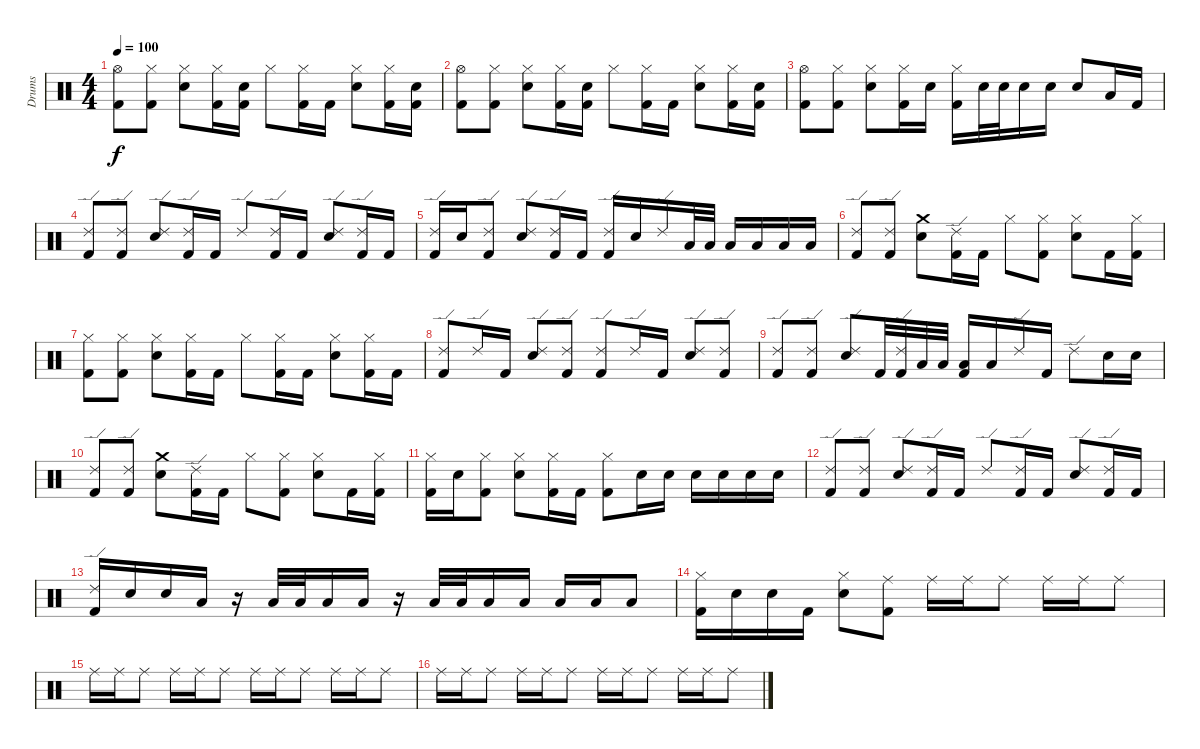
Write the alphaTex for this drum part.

\track ("Drums" "Drums") {instrument percussion}
\staff {score}
\articulation defaults
\ts (4 4)
\tempo 100
\clef neutral
\ks c
("Hi-Hat (open)" "Kick (hit) 2").8{dy f} ("Hi-Hat (closed)" "Kick (hit) 2").8 ("Hi-Hat (closed)" "Electric Snare (hit)").8 ("Hi-Hat (closed)" "Kick (hit) 2").16 ("Electric Snare (hit)" "Kick (hit) 2").16 "Hi-Hat (closed)".8 ("Hi-Hat (closed)" "Kick (hit) 2").16 "Kick (hit) 2".16 ("Hi-Hat (closed)" "Electric Snare (hit)").8 ("Hi-Hat (closed)" "Kick (hit) 2").16 ("Electric Snare (hit)" "Kick (hit) 2").16 |
("Hi-Hat (open)" "Kick (hit) 2").8 ("Hi-Hat (closed)" "Kick (hit) 2").8 ("Hi-Hat (closed)" "Electric Snare (hit)").8 ("Hi-Hat (closed)" "Kick (hit) 2").16 ("Electric Snare (hit)" "Kick (hit) 2").16 "Hi-Hat (closed)".8 ("Hi-Hat (closed)" "Kick (hit) 2").16 "Kick (hit) 2".16 ("Hi-Hat (closed)" "Electric Snare (hit)").8 ("Hi-Hat (closed)" "Kick (hit) 2").16 ("Electric Snare (hit)" "Kick (hit) 2").16 |
("Hi-Hat (open)" "Kick (hit) 2").8 ("Hi-Hat (closed)" "Kick (hit) 2").8 ("Hi-Hat (closed)" "Electric Snare (hit)").8 ("Hi-Hat (closed)" "Kick (hit) 2").16 "Electric Snare (hit)".16 ("Hi-Hat (closed)" "Kick (hit) 2").16 "Electric Snare (hit)".32 "Electric Snare (hit)".32 "Electric Snare (hit)".16 "Electric Snare (hit)".16 "Electric Snare (hit)".8 "Low Tom (hit)".16 "Kick (hit) 2".16 |
("Ride (edge) 2" "Kick (hit) 2").8 ("Ride (edge) 2" "Kick (hit) 2").8 ("Ride (edge) 2" "Electric Snare (hit)").8 ("Ride (edge) 2" "Kick (hit) 2").16 "Kick (hit) 2".16 "Ride (edge) 2".8 ("Ride (edge) 2" "Kick (hit) 2").16 "Kick (hit) 2".16 ("Ride (edge) 2" "Electric Snare (hit)").8 ("Ride (edge) 2" "Kick (hit) 2").16 "Kick (hit) 2".16 |
("Ride (edge) 2" "Kick (hit) 2").16 "Electric Snare (hit)".16 ("Ride (edge) 2" "Kick (hit) 2").8 ("Ride (edge) 2" "Electric Snare (hit)").8 ("Ride (edge) 2" "Kick (hit) 2").16 "Kick (hit) 2".16 ("Ride (edge) 2" "Kick (hit) 2").16 "Electric Snare (hit)".16 "Ride (edge) 2".16 "Low Tom (hit)".32 "Low Tom (hit)".32 "Low Floor Tom (hit)".16 "Low Floor Tom (hit)".16 "Low Floor Tom (hit)".16 "Low Floor Tom (hit)".16 |
("Ride (edge) 2" "Kick (hit) 2").8 ("Ride (edge) 2" "Kick (hit) 2").8 ("Crash medium (hit)" "Electric Snare (hit)").8 ("Ride (edge) 2" "Kick (hit) 2").16 "Kick (hit) 2".16 "Hi-Hat (closed)".8 ("Hi-Hat (closed)" "Kick (hit) 2").8 ("Hi-Hat (closed)" "Electric Snare (hit)").8 "Kick (hit) 2".16 ("Hi-Hat (closed)" "Kick (hit) 2").16 |
("Hi-Hat (closed)" "Kick (hit) 2").8 ("Hi-Hat (closed)" "Kick (hit) 2").8 ("Hi-Hat (closed)" "Electric Snare (hit)").8 ("Hi-Hat (closed)" "Kick (hit) 2").16 "Kick (hit) 2".16 "Hi-Hat (closed)".8 ("Hi-Hat (closed)" "Kick (hit) 2").16 "Kick (hit) 2".16 ("Hi-Hat (closed)" "Electric Snare (hit)").8 ("Hi-Hat (closed)" "Kick (hit) 2").16 "Kick (hit) 2".16 |
("Ride (edge) 2" "Kick (hit) 2").8 "Ride (edge) 2".16 "Kick (hit) 2".16 ("Ride (edge) 2" "Electric Snare (hit)").8 ("Ride (edge) 2" "Kick (hit) 2").8 ("Ride (edge) 2" "Kick (hit) 2").8 "Ride (edge) 2".16 "Kick (hit) 2".16 ("Ride (edge) 2" "Electric Snare (hit)").8 ("Ride (edge) 2" "Kick (hit) 2").8 |
("Ride (edge) 2" "Kick (hit) 2").8 ("Ride (edge) 2" "Kick (hit) 2").8 ("Ride (edge) 2" "Electric Snare (hit)").8 "Kick (hit) 2".32 ("Ride (edge) 2" "Kick (hit) 2").32 "Low Tom (hit)".32 "Low Tom (hit)".32 ("Low Tom (hit)" "Kick (hit) 2").16 "Low Floor Tom (hit)".16 "Ride (edge) 2".16 "Kick (hit) 2".16 "Ride (edge) 2".8 "Electric Snare (hit)".16 "Electric Snare (hit)".16 |
("Ride (edge) 2" "Kick (hit) 2").8 ("Ride (edge) 2" "Kick (hit) 2").8 ("Crash medium (hit)" "Electric Snare (hit)").8 ("Ride (edge) 2" "Kick (hit) 2").16 "Kick (hit) 2".16 "Hi-Hat (closed)".8 ("Hi-Hat (closed)" "Kick (hit) 2").8 ("Hi-Hat (closed)" "Electric Snare (hit)").8 "Kick (hit) 2".16 ("Hi-Hat (closed)" "Kick (hit) 2").16 |
("Hi-Hat (closed)" "Kick (hit) 2").16 "Electric Snare (hit)".16 ("Hi-Hat (closed)" "Kick (hit) 2").8 ("Hi-Hat (closed)" "Electric Snare (hit)").8 ("Hi-Hat (closed)" "Kick (hit) 2").16 "Kick (hit) 2".16 ("Hi-Hat (closed)" "Kick (hit) 2").8 "Electric Snare (hit)".16 "Electric Snare (hit)".16 "Electric Snare (hit)".16 "Electric Snare (hit)".16 "Electric Snare (hit)".16 "Electric Snare (hit)".16 |
("Ride (edge) 2" "Kick (hit) 2").8 ("Ride (edge) 2" "Kick (hit) 2").8 ("Ride (edge) 2" "Electric Snare (hit)").8 ("Ride (edge) 2" "Kick (hit) 2").16 "Kick (hit) 2".16 "Ride (edge) 2".8 ("Ride (edge) 2" "Kick (hit) 2").16 "Kick (hit) 2".16 ("Ride (edge) 2" "Electric Snare (hit)").8 ("Ride (edge) 2" "Kick (hit) 2").16 "Kick (hit) 2".16 |
("Ride (edge) 2" "Kick (hit) 2").16 "Electric Snare (hit)".16 "Electric Snare (hit)".16 "Low Tom (hit)".16 r.16 "Low Tom (hit)".32 "Low Tom (hit)".32 "Low Floor Tom (hit)".16 "Low Floor Tom (hit)".16 r.16 "Low Floor Tom (hit)".32 "Low Floor Tom (hit)".32 "Low Floor Tom (hit)".16 "Low Floor Tom (hit)".16 "Low Floor Tom (hit)".16 "Low Floor Tom (hit)".16 "Low Floor Tom (hit)".8 |
("Hi-Hat (closed)" "Kick (hit) 2").16 "Electric Snare (hit)".16 "Electric Snare (hit)".16 "Kick (hit) 2".16 ("Hi-Hat (closed)" "Electric Snare (hit)").8 ("Ride (middle)" "Kick (hit) 2").8 "Ride (middle)".16 "Ride (middle)".16 "Ride (middle)".8 "Ride (middle)".16 "Ride (middle)".16 "Ride (middle)".8 |
"Ride (middle)".16 "Ride (middle)".16 "Ride (middle)".8 "Ride (middle)".16 "Ride (middle)".16 "Ride (middle)".8 "Ride (middle)".16 "Ride (middle)".16 "Ride (middle)".8 "Ride (middle)".16 "Ride (middle)".16 "Ride (middle)".8 |
"Ride (middle)".16 "Ride (middle)".16 "Ride (middle)".8 "Ride (middle)".16 "Ride (middle)".16 "Ride (middle)".8 "Ride (middle)".16 "Ride (middle)".16 "Ride (middle)".8 "Ride (middle)".16 "Ride (middle)".16 "Ride (middle)".8
